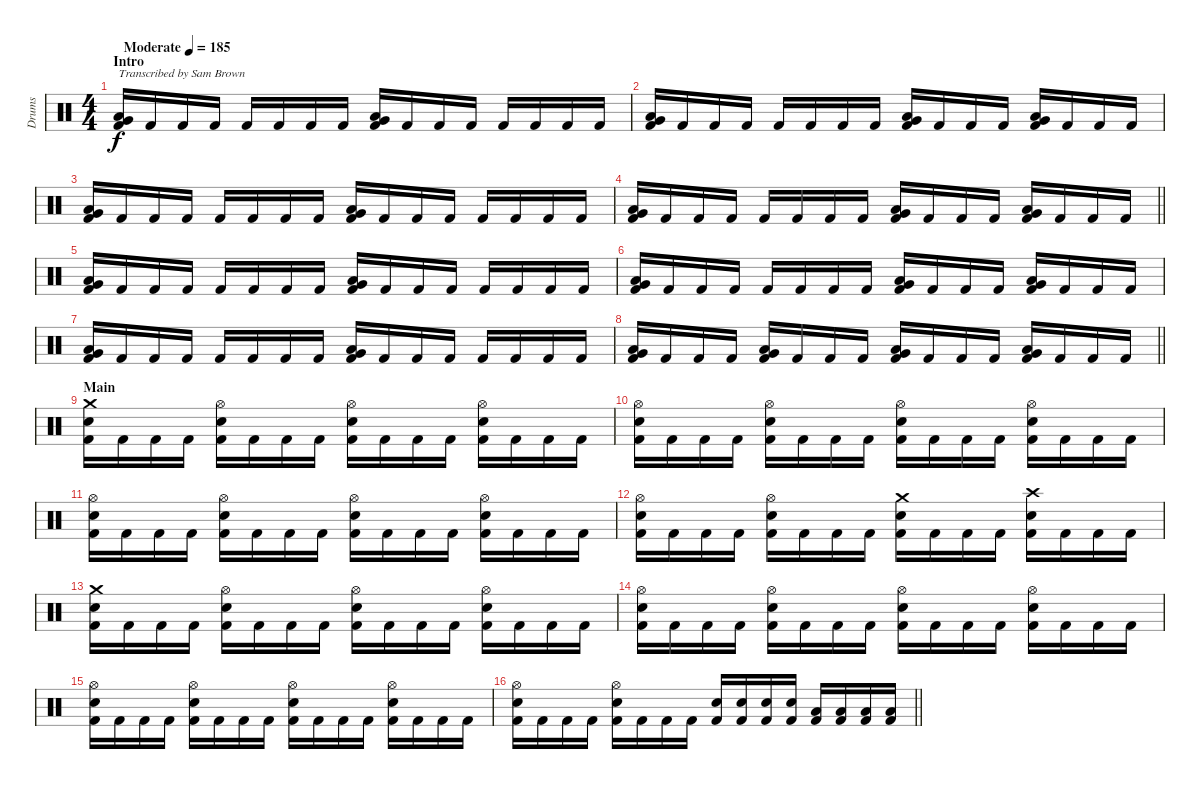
\track ("Drums" "Drums") {instrument percussion}
\staff {score}
\articulation defaults
\ts (4 4)
\section ("" "Intro")
\tempo (185 "Moderate")
\clef neutral
\ks c
("Kick (hit) 2" "Low Tom (hit)" "Very Low Tom (hit)").16{txt "Transcribed by Sam Brown" dy f} "Kick (hit) 2".16 "Kick (hit) 2".16 "Kick (hit) 2".16 "Kick (hit) 2".16 "Kick (hit) 2".16 "Kick (hit) 2".16 "Kick (hit) 2".16 ("Kick (hit) 2" "Low Tom (hit)" "Very Low Tom (hit)").16 "Kick (hit) 2".16 "Kick (hit) 2".16 "Kick (hit) 2".16 "Kick (hit) 2".16 "Kick (hit) 2".16 "Kick (hit) 2".16 "Kick (hit) 2".16 |
("Kick (hit) 2" "Low Tom (hit)" "Very Low Tom (hit)").16 "Kick (hit) 2".16 "Kick (hit) 2".16 "Kick (hit) 2".16 "Kick (hit) 2".16 "Kick (hit) 2".16 "Kick (hit) 2".16 "Kick (hit) 2".16 ("Kick (hit) 2" "Low Tom (hit)" "Very Low Tom (hit)").16 "Kick (hit) 2".16 "Kick (hit) 2".16 "Kick (hit) 2".16 ("Kick (hit) 2" "Low Tom (hit)" "Very Low Tom (hit)").16 "Kick (hit) 2".16 "Kick (hit) 2".16 "Kick (hit) 2".16 |
("Kick (hit) 2" "Low Tom (hit)" "Very Low Tom (hit)").16 "Kick (hit) 2".16 "Kick (hit) 2".16 "Kick (hit) 2".16 "Kick (hit) 2".16 "Kick (hit) 2".16 "Kick (hit) 2".16 "Kick (hit) 2".16 ("Kick (hit) 2" "Low Tom (hit)" "Very Low Tom (hit)").16 "Kick (hit) 2".16 "Kick (hit) 2".16 "Kick (hit) 2".16 "Kick (hit) 2".16 "Kick (hit) 2".16 "Kick (hit) 2".16 "Kick (hit) 2".16 |
\barLineRight lightlight
("Kick (hit) 2" "Low Tom (hit)" "Very Low Tom (hit)").16 "Kick (hit) 2".16 "Kick (hit) 2".16 "Kick (hit) 2".16 "Kick (hit) 2".16 "Kick (hit) 2".16 "Kick (hit) 2".16 "Kick (hit) 2".16 ("Kick (hit) 2" "Low Tom (hit)" "Very Low Tom (hit)").16 "Kick (hit) 2".16 "Kick (hit) 2".16 "Kick (hit) 2".16 ("Kick (hit) 2" "Low Tom (hit)" "Very Low Tom (hit)").16 "Kick (hit) 2".16 "Kick (hit) 2".16 "Kick (hit) 2".16 |
\section ("" "")
("Kick (hit) 2" "Low Tom (hit)" "Very Low Tom (hit)").16 "Kick (hit) 2".16 "Kick (hit) 2".16 "Kick (hit) 2".16 "Kick (hit) 2".16 "Kick (hit) 2".16 "Kick (hit) 2".16 "Kick (hit) 2".16 ("Kick (hit) 2" "Low Tom (hit)" "Very Low Tom (hit)").16 "Kick (hit) 2".16 "Kick (hit) 2".16 "Kick (hit) 2".16 "Kick (hit) 2".16 "Kick (hit) 2".16 "Kick (hit) 2".16 "Kick (hit) 2".16 |
("Kick (hit) 2" "Low Tom (hit)" "Very Low Tom (hit)").16 "Kick (hit) 2".16 "Kick (hit) 2".16 "Kick (hit) 2".16 "Kick (hit) 2".16 "Kick (hit) 2".16 "Kick (hit) 2".16 "Kick (hit) 2".16 ("Kick (hit) 2" "Low Tom (hit)" "Very Low Tom (hit)").16 "Kick (hit) 2".16 "Kick (hit) 2".16 "Kick (hit) 2".16 ("Kick (hit) 2" "Low Tom (hit)" "Very Low Tom (hit)").16 "Kick (hit) 2".16 "Kick (hit) 2".16 "Kick (hit) 2".16 |
("Kick (hit) 2" "Low Tom (hit)" "Very Low Tom (hit)").16 "Kick (hit) 2".16 "Kick (hit) 2".16 "Kick (hit) 2".16 "Kick (hit) 2".16 "Kick (hit) 2".16 "Kick (hit) 2".16 "Kick (hit) 2".16 ("Kick (hit) 2" "Low Tom (hit)" "Very Low Tom (hit)").16 "Kick (hit) 2".16 "Kick (hit) 2".16 "Kick (hit) 2".16 "Kick (hit) 2".16 "Kick (hit) 2".16 "Kick (hit) 2".16 "Kick (hit) 2".16 |
\barLineRight lightlight
("Kick (hit) 2" "Low Tom (hit)" "Very Low Tom (hit)").16 "Kick (hit) 2".16 "Kick (hit) 2".16 "Kick (hit) 2".16 ("Kick (hit) 2" "Low Tom (hit)" "Very Low Tom (hit)").16 "Kick (hit) 2".16 "Kick (hit) 2".16 "Kick (hit) 2".16 ("Kick (hit) 2" "Very Low Tom (hit)" "Low Floor Tom (hit)").16 "Kick (hit) 2".16 "Kick (hit) 2".16 "Kick (hit) 2".16 ("Kick (hit) 2" "Very Low Tom (hit)" "Low Floor Tom (hit)").16 "Kick (hit) 2".16 "Kick (hit) 2".16 "Kick (hit) 2".16 |
\section ("" "Main")
("Kick (hit) 2" "Snare (hit) 2" "Crash medium (hit)").16 "Kick (hit) 2".16 "Kick (hit) 2".16 "Kick (hit) 2".16 ("Kick (hit) 2" "Snare (hit) 2" "Hi-Hat (open)").16 "Kick (hit) 2".16 "Kick (hit) 2".16 "Kick (hit) 2".16 ("Kick (hit) 2" "Snare (hit) 2" "Hi-Hat (open)").16 "Kick (hit) 2".16 "Kick (hit) 2".16 "Kick (hit) 2".16 ("Kick (hit) 2" "Snare (hit) 2" "Hi-Hat (open)").16 "Kick (hit) 2".16 "Kick (hit) 2".16 "Kick (hit) 2".16 |
("Kick (hit) 2" "Snare (hit) 2" "Hi-Hat (open)").16 "Kick (hit) 2".16 "Kick (hit) 2".16 "Kick (hit) 2".16 ("Kick (hit) 2" "Snare (hit) 2" "Hi-Hat (open)").16 "Kick (hit) 2".16 "Kick (hit) 2".16 "Kick (hit) 2".16 ("Kick (hit) 2" "Snare (hit) 2" "Hi-Hat (open)").16 "Kick (hit) 2".16 "Kick (hit) 2".16 "Kick (hit) 2".16 ("Kick (hit) 2" "Snare (hit) 2" "Hi-Hat (open)").16 "Kick (hit) 2".16 "Kick (hit) 2".16 "Kick (hit) 2".16 |
("Kick (hit) 2" "Snare (hit) 2" "Hi-Hat (open)").16 "Kick (hit) 2".16 "Kick (hit) 2".16 "Kick (hit) 2".16 ("Kick (hit) 2" "Snare (hit) 2" "Hi-Hat (open)").16 "Kick (hit) 2".16 "Kick (hit) 2".16 "Kick (hit) 2".16 ("Kick (hit) 2" "Snare (hit) 2" "Hi-Hat (open)").16 "Kick (hit) 2".16 "Kick (hit) 2".16 "Kick (hit) 2".16 ("Kick (hit) 2" "Snare (hit) 2" "Hi-Hat (open)").16 "Kick (hit) 2".16 "Kick (hit) 2".16 "Kick (hit) 2".16 |
("Kick (hit) 2" "Snare (hit) 2" "Hi-Hat (open)").16 "Kick (hit) 2".16 "Kick (hit) 2".16 "Kick (hit) 2".16 ("Kick (hit) 2" "Snare (hit) 2" "Hi-Hat (open)").16 "Kick (hit) 2".16 "Kick (hit) 2".16 "Kick (hit) 2".16 ("Kick (hit) 2" "Snare (hit) 2" "Crash medium (hit)").16 "Kick (hit) 2".16 "Kick (hit) 2".16 "Kick (hit) 2".16 ("Kick (hit) 2" "Snare (hit) 2" "Crash high (hit)").16 "Kick (hit) 2".16 "Kick (hit) 2".16 "Kick (hit) 2".16 |
("Kick (hit) 2" "Snare (hit) 2" "Crash medium (hit)").16 "Kick (hit) 2".16 "Kick (hit) 2".16 "Kick (hit) 2".16 ("Kick (hit) 2" "Snare (hit) 2" "Hi-Hat (open)").16 "Kick (hit) 2".16 "Kick (hit) 2".16 "Kick (hit) 2".16 ("Kick (hit) 2" "Snare (hit) 2" "Hi-Hat (open)").16 "Kick (hit) 2".16 "Kick (hit) 2".16 "Kick (hit) 2".16 ("Kick (hit) 2" "Snare (hit) 2" "Hi-Hat (open)").16 "Kick (hit) 2".16 "Kick (hit) 2".16 "Kick (hit) 2".16 |
("Kick (hit) 2" "Snare (hit) 2" "Hi-Hat (open)").16 "Kick (hit) 2".16 "Kick (hit) 2".16 "Kick (hit) 2".16 ("Kick (hit) 2" "Snare (hit) 2" "Hi-Hat (open)").16 "Kick (hit) 2".16 "Kick (hit) 2".16 "Kick (hit) 2".16 ("Kick (hit) 2" "Snare (hit) 2" "Hi-Hat (open)").16 "Kick (hit) 2".16 "Kick (hit) 2".16 "Kick (hit) 2".16 ("Kick (hit) 2" "Snare (hit) 2" "Hi-Hat (open)").16 "Kick (hit) 2".16 "Kick (hit) 2".16 "Kick (hit) 2".16 |
("Kick (hit) 2" "Snare (hit) 2" "Hi-Hat (open)").16 "Kick (hit) 2".16 "Kick (hit) 2".16 "Kick (hit) 2".16 ("Kick (hit) 2" "Snare (hit) 2" "Hi-Hat (open)").16 "Kick (hit) 2".16 "Kick (hit) 2".16 "Kick (hit) 2".16 ("Kick (hit) 2" "Snare (hit) 2" "Hi-Hat (open)").16 "Kick (hit) 2".16 "Kick (hit) 2".16 "Kick (hit) 2".16 ("Kick (hit) 2" "Snare (hit) 2" "Hi-Hat (open)").16 "Kick (hit) 2".16 "Kick (hit) 2".16 "Kick (hit) 2".16 |
\barLineRight lightlight
("Kick (hit) 2" "Snare (hit) 2" "Hi-Hat (open)").16 "Kick (hit) 2".16 "Kick (hit) 2".16 "Kick (hit) 2".16 ("Kick (hit) 2" "Snare (hit) 2" "Hi-Hat (open)").16 "Kick (hit) 2".16 "Kick (hit) 2".16 "Kick (hit) 2".16 ("Kick (hit) 2" "Snare (hit) 2").16 ("Kick (hit) 2" "Snare (hit) 2").16 ("Kick (hit) 2" "Snare (hit) 2").16 ("Kick (hit) 2" "Snare (hit) 2").16 ("Kick (hit) 2" "Low Tom (hit)").16 ("Kick (hit) 2" "Low Tom (hit)").16 ("Kick (hit) 2" "Low Tom (hit)").16 ("Kick (hit) 2" "Low Tom (hit)").16
